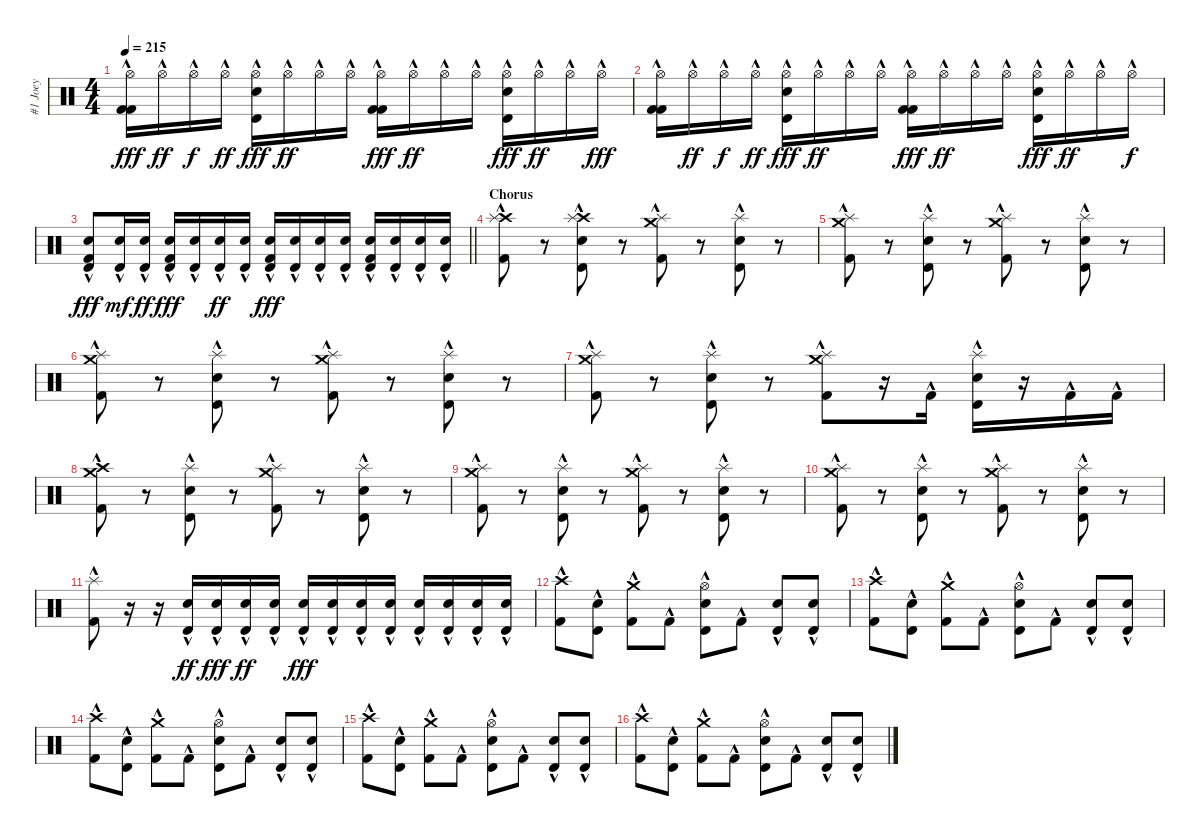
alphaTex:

\track ("#1 Joey" "#1 Joey") {instrument percussion}
\staff {score}
\articulation defaults
\ts (4 4)
\tempo 215
\clef neutral
\ks c
("Hi-Hat (open)"{hac} "Kick (hit) 2"{hac} "Kick (hit) 2"{hac}).16{dy fff} "Hi-Hat (open)"{hac}.16{dy ff} "Hi-Hat (open)"{hac}.16{dy f} "Hi-Hat (open)"{hac}.16{dy ff} ("Hi-Hat (open)"{hac} "Timbale high (hit)"{hac} "Electric Snare (hit)"{hac}).16{dy fff} "Hi-Hat (open)"{hac}.16{dy ff} "Hi-Hat (open)"{hac}.16 "Hi-Hat (open)"{hac}.16 ("Hi-Hat (open)"{hac} "Kick (hit) 2"{hac} "Kick (hit) 2"{hac}).16{dy fff} "Hi-Hat (open)"{hac}.16{dy ff} "Hi-Hat (open)"{hac}.16 "Hi-Hat (open)"{hac}.16 ("Hi-Hat (open)"{hac} "Timbale high (hit)"{hac} "Electric Snare (hit)"{hac}).16{dy fff} "Hi-Hat (open)"{hac}.16{dy ff} "Hi-Hat (open)"{hac}.16 "Hi-Hat (open)"{hac}.16{dy fff} |
("Hi-Hat (open)"{hac} "Kick (hit) 2"{hac} "Kick (hit) 2"{hac}).16 "Hi-Hat (open)"{hac}.16{dy ff} "Hi-Hat (open)"{hac}.16{dy f} "Hi-Hat (open)"{hac}.16{dy ff} ("Hi-Hat (open)"{hac} "Timbale high (hit)"{hac} "Electric Snare (hit)"{hac}).16{dy fff} "Hi-Hat (open)"{hac}.16{dy ff} "Hi-Hat (open)"{hac}.16 "Hi-Hat (open)"{hac}.16 ("Hi-Hat (open)"{hac} "Kick (hit) 2"{hac} "Kick (hit) 2"{hac}).16{dy fff} "Hi-Hat (open)"{hac}.16{dy ff} "Hi-Hat (open)"{hac}.16 "Hi-Hat (open)"{hac}.16 ("Hi-Hat (open)"{hac} "Timbale high (hit)"{hac} "Electric Snare (hit)"{hac}).16{dy fff} "Hi-Hat (open)"{hac}.16{dy ff} "Hi-Hat (open)"{hac}.16 "Hi-Hat (open)"{hac}.16{dy f} |
\barLineRight lightlight
("Timbale high (hit)"{hac} "Electric Snare (hit)"{hac} "Kick (hit) 2"{hac}).8{dy fff} ("Timbale high (hit)"{hac} "Electric Snare (hit)"{hac}).16{dy mf} ("Timbale high (hit)"{hac} "Electric Snare (hit)"{hac}).16{dy ff} ("Timbale high (hit)"{hac} "Electric Snare (hit)"{hac} "Kick (hit) 2"{hac}).16{dy fff} ("Timbale high (hit)"{hac} "Electric Snare (hit)"{hac}).16 ("Timbale high (hit)"{hac} "Electric Snare (hit)"{hac}).16{dy ff} ("Timbale high (hit)"{hac} "Electric Snare (hit)"{hac}).16 ("Timbale high (hit)"{hac} "Electric Snare (hit)"{hac} "Kick (hit) 2"{hac}).16{dy fff} ("Timbale high (hit)"{hac} "Electric Snare (hit)"{hac}).16 ("Timbale high (hit)"{hac} "Electric Snare (hit)"{hac}).16 ("Timbale high (hit)"{hac} "Electric Snare (hit)"{hac}).16 ("Timbale high (hit)"{hac} "Electric Snare (hit)"{hac} "Kick (hit) 2"{hac}).16 ("Timbale high (hit)"{hac} "Electric Snare (hit)"{hac}).16 ("Timbale high (hit)"{hac} "Electric Snare (hit)"{hac}).16 ("Timbale high (hit)"{hac} "Electric Snare (hit)"{hac}).16 |
\section ("" "Chorus")
("Crash high (hit)"{hac} "Splash (hit)"{hac} "Kick (hit) 2"{hac}).8 r.8 ("Crash high (hit)"{hac} "Splash (hit)"{hac} "Timbale high (hit)"{hac} "Electric Snare (hit)"{hac}).8 r.8 ("Crash medium (hit)"{hac} "Splash (hit)"{hac} "Kick (hit) 2"{hac}).8 r.8 ("Splash (hit)"{hac} "Timbale high (hit)"{hac} "Electric Snare (hit)"{hac}).8 r.8 |
("Crash medium (hit)"{hac} "Splash (hit)"{hac} "Kick (hit) 2"{hac}).8 r.8 ("Splash (hit)"{hac} "Timbale high (hit)"{hac} "Electric Snare (hit)"{hac}).8 r.8 ("Crash medium (hit)"{hac} "Splash (hit)"{hac} "Kick (hit) 2"{hac}).8 r.8 ("Splash (hit)"{hac} "Timbale high (hit)"{hac} "Electric Snare (hit)"{hac}).8 r.8 |
("Crash medium (hit)"{hac} "Splash (hit)"{hac} "Kick (hit) 2"{hac}).8 r.8 ("Splash (hit)"{hac} "Timbale high (hit)"{hac} "Electric Snare (hit)"{hac}).8 r.8 ("Crash medium (hit)"{hac} "Splash (hit)"{hac} "Kick (hit) 2"{hac}).8 r.8 ("Splash (hit)"{hac} "Timbale high (hit)"{hac} "Electric Snare (hit)"{hac}).8 r.8 |
("Crash medium (hit)"{hac} "Splash (hit)"{hac} "Kick (hit) 2"{hac}).8 r.8 ("Splash (hit)"{hac} "Timbale high (hit)"{hac} "Electric Snare (hit)"{hac}).8 r.8 ("Crash medium (hit)"{hac} "Splash (hit)"{hac} "Kick (hit) 2"{hac}).8 r.16 "Kick (hit) 2"{hac}.16 ("Splash (hit)"{hac} "Timbale high (hit)"{hac} "Electric Snare (hit)"{hac}).16 r.16 "Kick (hit) 2"{hac}.16 "Kick (hit) 2"{hac}.16 |
("Crash high (hit)"{hac} "Crash medium (hit)"{hac} "Kick (hit) 2"{hac}).8 r.8 ("Splash (hit)"{hac} "Timbale high (hit)"{hac} "Electric Snare (hit)"{hac}).8 r.8 ("Crash medium (hit)"{hac} "Splash (hit)"{hac} "Kick (hit) 2"{hac}).8 r.8 ("Splash (hit)"{hac} "Timbale high (hit)"{hac} "Electric Snare (hit)"{hac}).8 r.8 |
("Crash medium (hit)"{hac} "Splash (hit)"{hac} "Kick (hit) 2"{hac}).8 r.8 ("Splash (hit)"{hac} "Timbale high (hit)"{hac} "Electric Snare (hit)"{hac}).8 r.8 ("Crash medium (hit)"{hac} "Splash (hit)"{hac} "Kick (hit) 2"{hac}).8 r.8 ("Splash (hit)"{hac} "Timbale high (hit)"{hac} "Electric Snare (hit)"{hac}).8 r.8 |
("Crash medium (hit)"{hac} "Splash (hit)"{hac} "Kick (hit) 2"{hac}).8 r.8 ("Splash (hit)"{hac} "Timbale high (hit)"{hac} "Electric Snare (hit)"{hac}).8 r.8 ("Crash medium (hit)"{hac} "Splash (hit)"{hac} "Kick (hit) 2"{hac}).8 r.8 ("Splash (hit)"{hac} "Timbale high (hit)"{hac} "Electric Snare (hit)"{hac}).8 r.8 |
("Splash (hit)"{hac} "Kick (hit) 2"{hac}).8 r.16 r.16 ("Timbale high (hit)"{hac} "Electric Snare (hit)"{hac}).16{dy ff} ("Timbale high (hit)"{hac} "Electric Snare (hit)"{hac}).16{dy fff} ("Timbale high (hit)"{hac} "Electric Snare (hit)"{hac}).16{dy ff} ("Timbale high (hit)"{hac} "Electric Snare (hit)"{hac}).16 ("Timbale high (hit)"{hac} "Electric Snare (hit)"{hac}).16{dy fff} ("Timbale high (hit)"{hac} "Electric Snare (hit)"{hac}).16 ("Timbale high (hit)"{hac} "Electric Snare (hit)"{hac}).16 ("Timbale high (hit)"{hac} "Electric Snare (hit)"{hac}).16 ("Timbale high (hit)"{hac} "Electric Snare (hit)"{hac}).16 ("Timbale high (hit)"{hac} "Electric Snare (hit)"{hac}).16 ("Timbale high (hit)"{hac} "Electric Snare (hit)"{hac}).16 ("Timbale high (hit)"{hac} "Electric Snare (hit)"{hac}).16 |
("Crash high (hit)"{hac} "Kick (hit) 2"{hac}).8 ("Timbale high (hit)"{hac} "Electric Snare (hit)"{hac}).8 ("Crash medium (hit)"{hac} "Kick (hit) 2"{hac}).8 "Kick (hit) 2"{hac}.8 ("Hi-Hat (open)"{hac} "Timbale high (hit)"{hac} "Electric Snare (hit)"{hac}).8 "Kick (hit) 2"{hac}.8 ("Timbale high (hit)"{hac} "Electric Snare (hit)"{hac}).8 ("Timbale high (hit)"{hac} "Electric Snare (hit)"{hac}).8 |
("Crash high (hit)"{hac} "Kick (hit) 2"{hac}).8 ("Timbale high (hit)"{hac} "Electric Snare (hit)"{hac}).8 ("Crash medium (hit)"{hac} "Kick (hit) 2"{hac}).8 "Kick (hit) 2"{hac}.8 ("Hi-Hat (open)"{hac} "Timbale high (hit)"{hac} "Electric Snare (hit)"{hac}).8 "Kick (hit) 2"{hac}.8 ("Timbale high (hit)"{hac} "Electric Snare (hit)"{hac}).8 ("Timbale high (hit)"{hac} "Electric Snare (hit)"{hac}).8 |
("Crash high (hit)"{hac} "Kick (hit) 2"{hac}).8 ("Timbale high (hit)"{hac} "Electric Snare (hit)"{hac}).8 ("Crash medium (hit)"{hac} "Kick (hit) 2"{hac}).8 "Kick (hit) 2"{hac}.8 ("Hi-Hat (open)"{hac} "Timbale high (hit)"{hac} "Electric Snare (hit)"{hac}).8 "Kick (hit) 2"{hac}.8 ("Timbale high (hit)"{hac} "Electric Snare (hit)"{hac}).8 ("Timbale high (hit)"{hac} "Electric Snare (hit)"{hac}).8 |
("Crash high (hit)"{hac} "Kick (hit) 2"{hac}).8 ("Timbale high (hit)"{hac} "Electric Snare (hit)"{hac}).8 ("Crash medium (hit)"{hac} "Kick (hit) 2"{hac}).8 "Kick (hit) 2"{hac}.8 ("Hi-Hat (open)"{hac} "Timbale high (hit)"{hac} "Electric Snare (hit)"{hac}).8 "Kick (hit) 2"{hac}.8 ("Timbale high (hit)"{hac} "Electric Snare (hit)"{hac}).8 ("Timbale high (hit)"{hac} "Electric Snare (hit)"{hac}).8 |
("Crash high (hit)"{hac} "Kick (hit) 2"{hac}).8 ("Timbale high (hit)"{hac} "Electric Snare (hit)"{hac}).8 ("Crash medium (hit)"{hac} "Kick (hit) 2"{hac}).8 "Kick (hit) 2"{hac}.8 ("Hi-Hat (open)"{hac} "Timbale high (hit)"{hac} "Electric Snare (hit)"{hac}).8 "Kick (hit) 2"{hac}.8 ("Timbale high (hit)"{hac} "Electric Snare (hit)"{hac}).8 ("Timbale high (hit)"{hac} "Electric Snare (hit)"{hac}).8
